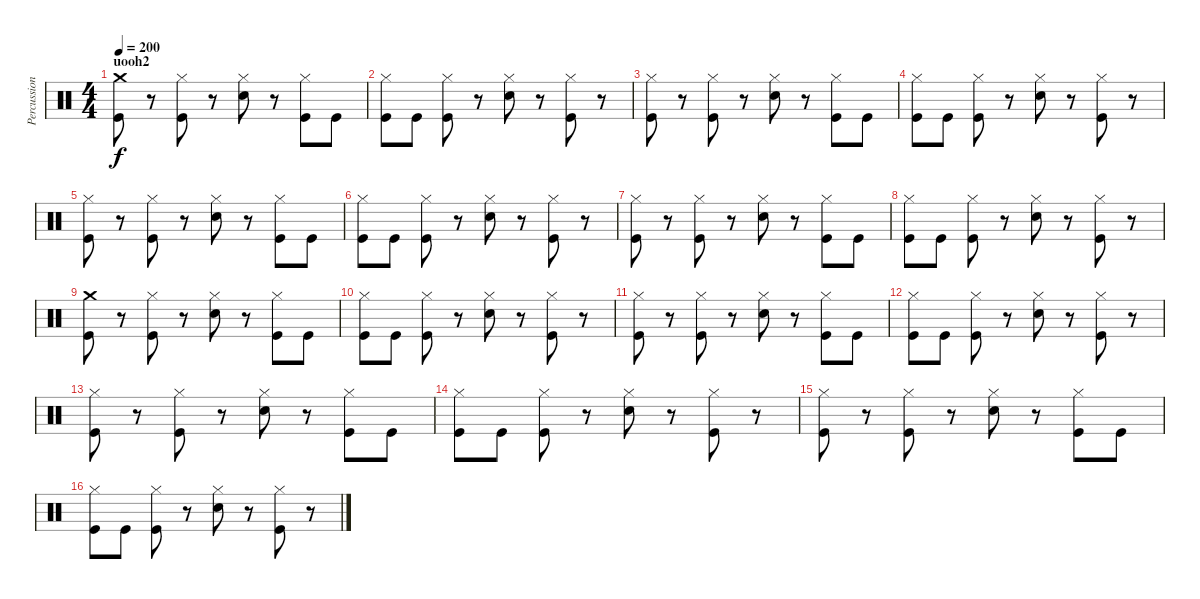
\track ("Percussion" "Percussion") {instrument percussion}
\staff {score}
\articulation defaults
\ts (4 4)
\section ("" "uooh2")
\tempo 200
\clef neutral
\ks c
("Crash medium (hit)" "Kick (hit)").8{dy f} r.8 ("Hi-Hat (closed)" "Kick (hit)").8 r.8 ("Hi-Hat (closed)" "Snare (hit) 2").8 r.8 ("Hi-Hat (closed)" "Kick (hit)").8 "Kick (hit)".8 |
("Hi-Hat (closed)" "Kick (hit)").8 "Kick (hit)".8 ("Hi-Hat (closed)" "Kick (hit)").8 r.8 ("Hi-Hat (closed)" "Snare (hit) 2").8 r.8 ("Hi-Hat (closed)" "Kick (hit)").8 r.8 |
("Hi-Hat (closed)" "Kick (hit)").8 r.8 ("Hi-Hat (closed)" "Kick (hit)").8 r.8 ("Hi-Hat (closed)" "Snare (hit) 2").8 r.8 ("Hi-Hat (closed)" "Kick (hit)").8 "Kick (hit)".8 |
("Hi-Hat (closed)" "Kick (hit)").8 "Kick (hit)".8 ("Hi-Hat (closed)" "Kick (hit)").8 r.8 ("Hi-Hat (closed)" "Snare (hit) 2").8 r.8 ("Hi-Hat (closed)" "Kick (hit)").8 r.8 |
("Hi-Hat (closed)" "Kick (hit)").8 r.8 ("Hi-Hat (closed)" "Kick (hit)").8 r.8 ("Hi-Hat (closed)" "Snare (hit) 2").8 r.8 ("Hi-Hat (closed)" "Kick (hit)").8 "Kick (hit)".8 |
("Hi-Hat (closed)" "Kick (hit)").8 "Kick (hit)".8 ("Hi-Hat (closed)" "Kick (hit)").8 r.8 ("Hi-Hat (closed)" "Snare (hit) 2").8 r.8 ("Hi-Hat (closed)" "Kick (hit)").8 r.8 |
("Hi-Hat (closed)" "Kick (hit)").8 r.8 ("Hi-Hat (closed)" "Kick (hit)").8 r.8 ("Hi-Hat (closed)" "Snare (hit) 2").8 r.8 ("Hi-Hat (closed)" "Kick (hit)").8 "Kick (hit)".8 |
("Hi-Hat (closed)" "Kick (hit)").8 "Kick (hit)".8 ("Hi-Hat (closed)" "Kick (hit)").8 r.8 ("Hi-Hat (closed)" "Snare (hit) 2").8 r.8 ("Hi-Hat (closed)" "Kick (hit)").8 r.8 |
("Crash medium (hit)" "Kick (hit)").8 r.8 ("Hi-Hat (closed)" "Kick (hit)").8 r.8 ("Hi-Hat (closed)" "Snare (hit) 2").8 r.8 ("Hi-Hat (closed)" "Kick (hit)").8 "Kick (hit)".8 |
("Hi-Hat (closed)" "Kick (hit)").8 "Kick (hit)".8 ("Hi-Hat (closed)" "Kick (hit)").8 r.8 ("Hi-Hat (closed)" "Snare (hit) 2").8 r.8 ("Hi-Hat (closed)" "Kick (hit)").8 r.8 |
("Hi-Hat (closed)" "Kick (hit)").8 r.8 ("Hi-Hat (closed)" "Kick (hit)").8 r.8 ("Hi-Hat (closed)" "Snare (hit) 2").8 r.8 ("Hi-Hat (closed)" "Kick (hit)").8 "Kick (hit)".8 |
("Hi-Hat (closed)" "Kick (hit)").8 "Kick (hit)".8 ("Hi-Hat (closed)" "Kick (hit)").8 r.8 ("Hi-Hat (closed)" "Snare (hit) 2").8 r.8 ("Hi-Hat (closed)" "Kick (hit)").8 r.8 |
("Hi-Hat (closed)" "Kick (hit)").8 r.8 ("Hi-Hat (closed)" "Kick (hit)").8 r.8 ("Hi-Hat (closed)" "Snare (hit) 2").8 r.8 ("Hi-Hat (closed)" "Kick (hit)").8 "Kick (hit)".8 |
("Hi-Hat (closed)" "Kick (hit)").8 "Kick (hit)".8 ("Hi-Hat (closed)" "Kick (hit)").8 r.8 ("Hi-Hat (closed)" "Snare (hit) 2").8 r.8 ("Hi-Hat (closed)" "Kick (hit)").8 r.8 |
("Hi-Hat (closed)" "Kick (hit)").8 r.8 ("Hi-Hat (closed)" "Kick (hit)").8 r.8 ("Hi-Hat (closed)" "Snare (hit) 2").8 r.8 ("Hi-Hat (closed)" "Kick (hit)").8 "Kick (hit)".8 |
("Hi-Hat (closed)" "Kick (hit)").8 "Kick (hit)".8 ("Hi-Hat (closed)" "Kick (hit)").8 r.8 ("Hi-Hat (closed)" "Snare (hit) 2").8 r.8 ("Hi-Hat (closed)" "Kick (hit)").8 r.8
